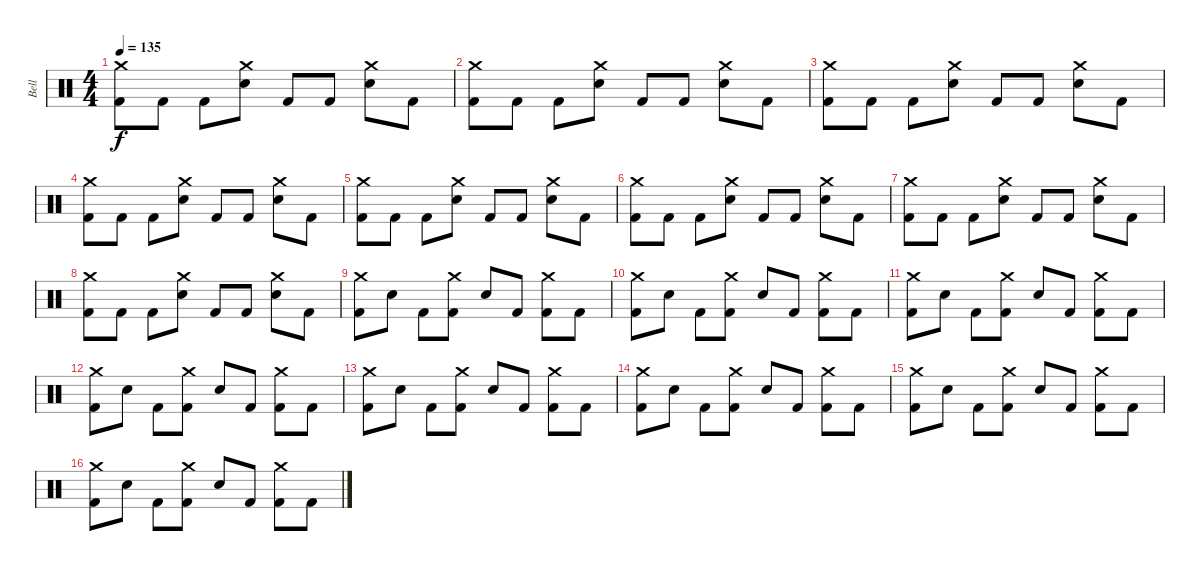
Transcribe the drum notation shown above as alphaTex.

\track ("Bell" "Bell") {instrument percussion}
\staff {score}
\articulation defaults
\ts (4 4)
\tempo 135
\clef neutral
\ks c
("Crash medium (hit)" "Kick (hit) 2").8{dy f} "Kick (hit) 2".8 "Kick (hit) 2".8 ("Crash medium (hit)" "Snare (hit) 2").8 "Kick (hit) 2".8 "Kick (hit) 2".8 ("Crash medium (hit)" "Snare (hit) 2").8 "Kick (hit) 2".8 |
("Crash medium (hit)" "Kick (hit) 2").8 "Kick (hit) 2".8 "Kick (hit) 2".8 ("Crash medium (hit)" "Snare (hit) 2").8 "Kick (hit) 2".8 "Kick (hit) 2".8 ("Crash medium (hit)" "Snare (hit) 2").8 "Kick (hit) 2".8 |
("Crash medium (hit)" "Kick (hit) 2").8 "Kick (hit) 2".8 "Kick (hit) 2".8 ("Crash medium (hit)" "Snare (hit) 2").8 "Kick (hit) 2".8 "Kick (hit) 2".8 ("Crash medium (hit)" "Snare (hit) 2").8 "Kick (hit) 2".8 |
("Crash medium (hit)" "Kick (hit) 2").8 "Kick (hit) 2".8 "Kick (hit) 2".8 ("Crash medium (hit)" "Snare (hit) 2").8 "Kick (hit) 2".8 "Kick (hit) 2".8 ("Crash medium (hit)" "Snare (hit) 2").8 "Kick (hit) 2".8 |
("Crash medium (hit)" "Kick (hit) 2").8 "Kick (hit) 2".8 "Kick (hit) 2".8 ("Crash medium (hit)" "Snare (hit) 2").8 "Kick (hit) 2".8 "Kick (hit) 2".8 ("Crash medium (hit)" "Snare (hit) 2").8 "Kick (hit) 2".8 |
("Crash medium (hit)" "Kick (hit) 2").8 "Kick (hit) 2".8 "Kick (hit) 2".8 ("Crash medium (hit)" "Snare (hit) 2").8 "Kick (hit) 2".8 "Kick (hit) 2".8 ("Crash medium (hit)" "Snare (hit) 2").8 "Kick (hit) 2".8 |
("Crash medium (hit)" "Kick (hit) 2").8 "Kick (hit) 2".8 "Kick (hit) 2".8 ("Crash medium (hit)" "Snare (hit) 2").8 "Kick (hit) 2".8 "Kick (hit) 2".8 ("Crash medium (hit)" "Snare (hit) 2").8 "Kick (hit) 2".8 |
("Crash medium (hit)" "Kick (hit) 2").8 "Kick (hit) 2".8 "Kick (hit) 2".8 ("Crash medium (hit)" "Snare (hit) 2").8 "Kick (hit) 2".8 "Kick (hit) 2".8 ("Crash medium (hit)" "Snare (hit) 2").8 "Kick (hit) 2".8 |
("Crash medium (hit)" "Kick (hit) 2").8 "Snare (hit) 2".8 "Kick (hit) 2".8 ("Crash medium (hit)" "Kick (hit) 2").8 "Snare (hit) 2".8 "Kick (hit) 2".8 ("Crash medium (hit)" "Kick (hit) 2").8 "Kick (hit) 2".8 |
("Crash medium (hit)" "Kick (hit) 2").8 "Snare (hit) 2".8 "Kick (hit) 2".8 ("Crash medium (hit)" "Kick (hit) 2").8 "Snare (hit) 2".8 "Kick (hit) 2".8 ("Crash medium (hit)" "Kick (hit) 2").8 "Kick (hit) 2".8 |
("Crash medium (hit)" "Kick (hit) 2").8 "Snare (hit) 2".8 "Kick (hit) 2".8 ("Crash medium (hit)" "Kick (hit) 2").8 "Snare (hit) 2".8 "Kick (hit) 2".8 ("Crash medium (hit)" "Kick (hit) 2").8 "Kick (hit) 2".8 |
("Crash medium (hit)" "Kick (hit) 2").8 "Snare (hit) 2".8 "Kick (hit) 2".8 ("Crash medium (hit)" "Kick (hit) 2").8 "Snare (hit) 2".8 "Kick (hit) 2".8 ("Crash medium (hit)" "Kick (hit) 2").8 "Kick (hit) 2".8 |
("Crash medium (hit)" "Kick (hit) 2").8 "Snare (hit) 2".8 "Kick (hit) 2".8 ("Crash medium (hit)" "Kick (hit) 2").8 "Snare (hit) 2".8 "Kick (hit) 2".8 ("Crash medium (hit)" "Kick (hit) 2").8 "Kick (hit) 2".8 |
("Crash medium (hit)" "Kick (hit) 2").8 "Snare (hit) 2".8 "Kick (hit) 2".8 ("Crash medium (hit)" "Kick (hit) 2").8 "Snare (hit) 2".8 "Kick (hit) 2".8 ("Crash medium (hit)" "Kick (hit) 2").8 "Kick (hit) 2".8 |
("Crash medium (hit)" "Kick (hit) 2").8 "Snare (hit) 2".8 "Kick (hit) 2".8 ("Crash medium (hit)" "Kick (hit) 2").8 "Snare (hit) 2".8 "Kick (hit) 2".8 ("Crash medium (hit)" "Kick (hit) 2").8 "Kick (hit) 2".8 |
("Crash medium (hit)" "Kick (hit) 2").8 "Snare (hit) 2".8 "Kick (hit) 2".8 ("Crash medium (hit)" "Kick (hit) 2").8 "Snare (hit) 2".8 "Kick (hit) 2".8 ("Crash medium (hit)" "Kick (hit) 2").8 "Kick (hit) 2".8
